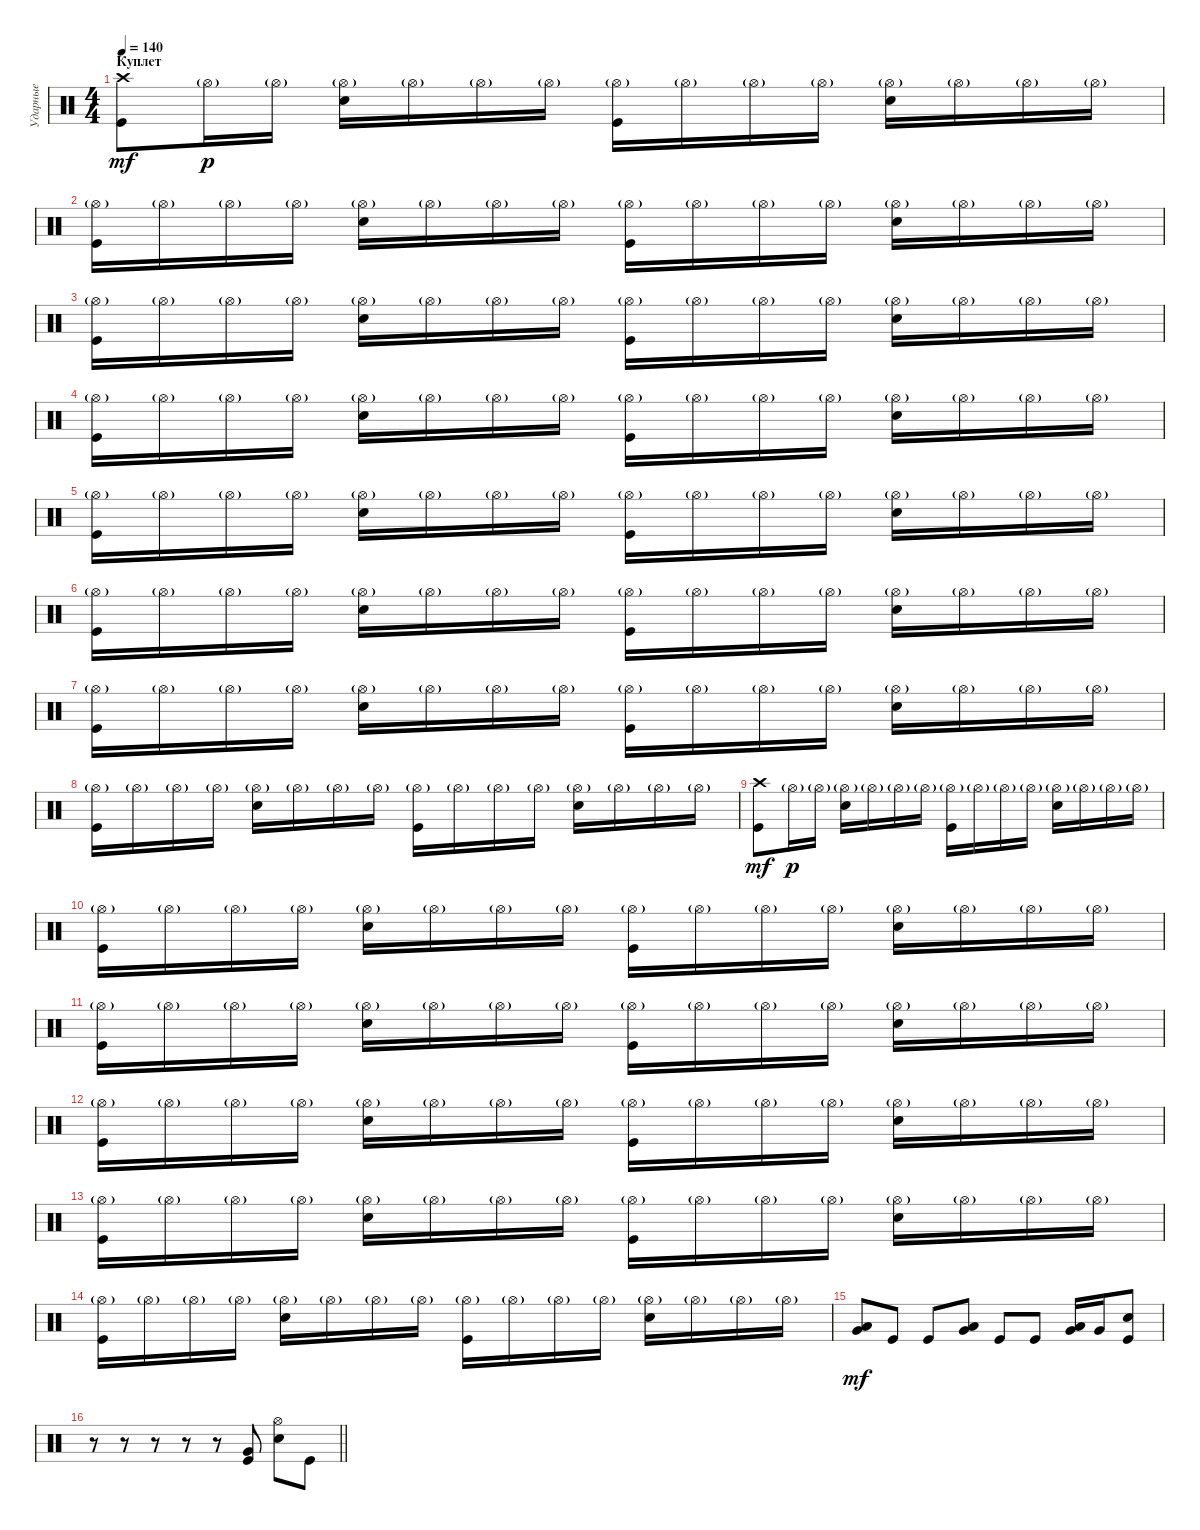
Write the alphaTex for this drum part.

\track ("Ударные" "Ударные") {instrument percussion}
\staff {score}
\articulation defaults
\ts (4 4)
\section ("" "Куплет")
\tempo 140
\clef neutral
\ks c
("Kick (hit)" "Crash high (hit)").8{dy mf} "Hi-Hat (open)"{g}.16{dy p} "Hi-Hat (open)"{g}.16 ("Snare (hit) 2" "Hi-Hat (open)"{g}).16 "Hi-Hat (open)"{g}.16 "Hi-Hat (open)"{g}.16 "Hi-Hat (open)"{g}.16 ("Kick (hit)" "Hi-Hat (open)"{g}).16 "Hi-Hat (open)"{g}.16 "Hi-Hat (open)"{g}.16 "Hi-Hat (open)"{g}.16 ("Snare (hit) 2" "Hi-Hat (open)"{g}).16 "Hi-Hat (open)"{g}.16 "Hi-Hat (open)"{g}.16 "Hi-Hat (open)"{g}.16 |
("Kick (hit)" "Hi-Hat (open)"{g}).16 "Hi-Hat (open)"{g}.16 "Hi-Hat (open)"{g}.16 "Hi-Hat (open)"{g}.16 ("Snare (hit) 2" "Hi-Hat (open)"{g}).16 "Hi-Hat (open)"{g}.16 "Hi-Hat (open)"{g}.16 "Hi-Hat (open)"{g}.16 ("Kick (hit)" "Hi-Hat (open)"{g}).16 "Hi-Hat (open)"{g}.16 "Hi-Hat (open)"{g}.16 "Hi-Hat (open)"{g}.16 ("Snare (hit) 2" "Hi-Hat (open)"{g}).16 "Hi-Hat (open)"{g}.16 "Hi-Hat (open)"{g}.16 "Hi-Hat (open)"{g}.16 |
("Kick (hit)" "Hi-Hat (open)"{g}).16 "Hi-Hat (open)"{g}.16 "Hi-Hat (open)"{g}.16 "Hi-Hat (open)"{g}.16 ("Snare (hit) 2" "Hi-Hat (open)"{g}).16 "Hi-Hat (open)"{g}.16 "Hi-Hat (open)"{g}.16 "Hi-Hat (open)"{g}.16 ("Kick (hit)" "Hi-Hat (open)"{g}).16 "Hi-Hat (open)"{g}.16 "Hi-Hat (open)"{g}.16 "Hi-Hat (open)"{g}.16 ("Snare (hit) 2" "Hi-Hat (open)"{g}).16 "Hi-Hat (open)"{g}.16 "Hi-Hat (open)"{g}.16 "Hi-Hat (open)"{g}.16 |
("Kick (hit)" "Hi-Hat (open)"{g}).16 "Hi-Hat (open)"{g}.16 "Hi-Hat (open)"{g}.16 "Hi-Hat (open)"{g}.16 ("Snare (hit) 2" "Hi-Hat (open)"{g}).16 "Hi-Hat (open)"{g}.16 "Hi-Hat (open)"{g}.16 "Hi-Hat (open)"{g}.16 ("Kick (hit)" "Hi-Hat (open)"{g}).16 "Hi-Hat (open)"{g}.16 "Hi-Hat (open)"{g}.16 "Hi-Hat (open)"{g}.16 ("Snare (hit) 2" "Hi-Hat (open)"{g}).16 "Hi-Hat (open)"{g}.16 "Hi-Hat (open)"{g}.16 "Hi-Hat (open)"{g}.16 |
("Kick (hit)" "Hi-Hat (open)"{g}).16 "Hi-Hat (open)"{g}.16 "Hi-Hat (open)"{g}.16 "Hi-Hat (open)"{g}.16 ("Snare (hit) 2" "Hi-Hat (open)"{g}).16 "Hi-Hat (open)"{g}.16 "Hi-Hat (open)"{g}.16 "Hi-Hat (open)"{g}.16 ("Kick (hit)" "Hi-Hat (open)"{g}).16 "Hi-Hat (open)"{g}.16 "Hi-Hat (open)"{g}.16 "Hi-Hat (open)"{g}.16 ("Snare (hit) 2" "Hi-Hat (open)"{g}).16 "Hi-Hat (open)"{g}.16 "Hi-Hat (open)"{g}.16 "Hi-Hat (open)"{g}.16 |
("Kick (hit)" "Hi-Hat (open)"{g}).16 "Hi-Hat (open)"{g}.16 "Hi-Hat (open)"{g}.16 "Hi-Hat (open)"{g}.16 ("Snare (hit) 2" "Hi-Hat (open)"{g}).16 "Hi-Hat (open)"{g}.16 "Hi-Hat (open)"{g}.16 "Hi-Hat (open)"{g}.16 ("Kick (hit)" "Hi-Hat (open)"{g}).16 "Hi-Hat (open)"{g}.16 "Hi-Hat (open)"{g}.16 "Hi-Hat (open)"{g}.16 ("Snare (hit) 2" "Hi-Hat (open)"{g}).16 "Hi-Hat (open)"{g}.16 "Hi-Hat (open)"{g}.16 "Hi-Hat (open)"{g}.16 |
("Kick (hit)" "Hi-Hat (open)"{g}).16 "Hi-Hat (open)"{g}.16 "Hi-Hat (open)"{g}.16 "Hi-Hat (open)"{g}.16 ("Snare (hit) 2" "Hi-Hat (open)"{g}).16 "Hi-Hat (open)"{g}.16 "Hi-Hat (open)"{g}.16 "Hi-Hat (open)"{g}.16 ("Kick (hit)" "Hi-Hat (open)"{g}).16 "Hi-Hat (open)"{g}.16 "Hi-Hat (open)"{g}.16 "Hi-Hat (open)"{g}.16 ("Snare (hit) 2" "Hi-Hat (open)"{g}).16 "Hi-Hat (open)"{g}.16 "Hi-Hat (open)"{g}.16 "Hi-Hat (open)"{g}.16 |
("Kick (hit)" "Hi-Hat (open)"{g}).16 "Hi-Hat (open)"{g}.16 "Hi-Hat (open)"{g}.16 "Hi-Hat (open)"{g}.16 ("Snare (hit) 2" "Hi-Hat (open)"{g}).16 "Hi-Hat (open)"{g}.16 "Hi-Hat (open)"{g}.16 "Hi-Hat (open)"{g}.16 ("Kick (hit)" "Hi-Hat (open)"{g}).16 "Hi-Hat (open)"{g}.16 "Hi-Hat (open)"{g}.16 "Hi-Hat (open)"{g}.16 ("Snare (hit) 2" "Hi-Hat (open)"{g}).16 "Hi-Hat (open)"{g}.16 "Hi-Hat (open)"{g}.16 "Hi-Hat (open)"{g}.16 |
("Kick (hit)" "Crash high (hit)").8{dy mf} "Hi-Hat (open)"{g}.16{dy p} "Hi-Hat (open)"{g}.16 ("Snare (hit) 2" "Hi-Hat (open)"{g}).16 "Hi-Hat (open)"{g}.16 "Hi-Hat (open)"{g}.16 "Hi-Hat (open)"{g}.16 ("Kick (hit)" "Hi-Hat (open)"{g}).16 "Hi-Hat (open)"{g}.16 "Hi-Hat (open)"{g}.16 "Hi-Hat (open)"{g}.16 ("Snare (hit) 2" "Hi-Hat (open)"{g}).16 "Hi-Hat (open)"{g}.16 "Hi-Hat (open)"{g}.16 "Hi-Hat (open)"{g}.16 |
("Kick (hit)" "Hi-Hat (open)"{g}).16 "Hi-Hat (open)"{g}.16 "Hi-Hat (open)"{g}.16 "Hi-Hat (open)"{g}.16 ("Snare (hit) 2" "Hi-Hat (open)"{g}).16 "Hi-Hat (open)"{g}.16 "Hi-Hat (open)"{g}.16 "Hi-Hat (open)"{g}.16 ("Kick (hit)" "Hi-Hat (open)"{g}).16 "Hi-Hat (open)"{g}.16 "Hi-Hat (open)"{g}.16 "Hi-Hat (open)"{g}.16 ("Snare (hit) 2" "Hi-Hat (open)"{g}).16 "Hi-Hat (open)"{g}.16 "Hi-Hat (open)"{g}.16 "Hi-Hat (open)"{g}.16 |
("Kick (hit)" "Hi-Hat (open)"{g}).16 "Hi-Hat (open)"{g}.16 "Hi-Hat (open)"{g}.16 "Hi-Hat (open)"{g}.16 ("Snare (hit) 2" "Hi-Hat (open)"{g}).16 "Hi-Hat (open)"{g}.16 "Hi-Hat (open)"{g}.16 "Hi-Hat (open)"{g}.16 ("Kick (hit)" "Hi-Hat (open)"{g}).16 "Hi-Hat (open)"{g}.16 "Hi-Hat (open)"{g}.16 "Hi-Hat (open)"{g}.16 ("Snare (hit) 2" "Hi-Hat (open)"{g}).16 "Hi-Hat (open)"{g}.16 "Hi-Hat (open)"{g}.16 "Hi-Hat (open)"{g}.16 |
("Kick (hit)" "Hi-Hat (open)"{g}).16 "Hi-Hat (open)"{g}.16 "Hi-Hat (open)"{g}.16 "Hi-Hat (open)"{g}.16 ("Snare (hit) 2" "Hi-Hat (open)"{g}).16 "Hi-Hat (open)"{g}.16 "Hi-Hat (open)"{g}.16 "Hi-Hat (open)"{g}.16 ("Kick (hit)" "Hi-Hat (open)"{g}).16 "Hi-Hat (open)"{g}.16 "Hi-Hat (open)"{g}.16 "Hi-Hat (open)"{g}.16 ("Snare (hit) 2" "Hi-Hat (open)"{g}).16 "Hi-Hat (open)"{g}.16 "Hi-Hat (open)"{g}.16 "Hi-Hat (open)"{g}.16 |
("Kick (hit)" "Hi-Hat (open)"{g}).16 "Hi-Hat (open)"{g}.16 "Hi-Hat (open)"{g}.16 "Hi-Hat (open)"{g}.16 ("Snare (hit) 2" "Hi-Hat (open)"{g}).16 "Hi-Hat (open)"{g}.16 "Hi-Hat (open)"{g}.16 "Hi-Hat (open)"{g}.16 ("Kick (hit)" "Hi-Hat (open)"{g}).16 "Hi-Hat (open)"{g}.16 "Hi-Hat (open)"{g}.16 "Hi-Hat (open)"{g}.16 ("Snare (hit) 2" "Hi-Hat (open)"{g}).16 "Hi-Hat (open)"{g}.16 "Hi-Hat (open)"{g}.16 "Hi-Hat (open)"{g}.16 |
("Kick (hit)" "Hi-Hat (open)"{g}).16 "Hi-Hat (open)"{g}.16 "Hi-Hat (open)"{g}.16 "Hi-Hat (open)"{g}.16 ("Snare (hit) 2" "Hi-Hat (open)"{g}).16 "Hi-Hat (open)"{g}.16 "Hi-Hat (open)"{g}.16 "Hi-Hat (open)"{g}.16 ("Kick (hit)" "Hi-Hat (open)"{g}).16 "Hi-Hat (open)"{g}.16 "Hi-Hat (open)"{g}.16 "Hi-Hat (open)"{g}.16 ("Snare (hit) 2" "Hi-Hat (open)"{g}).16 "Hi-Hat (open)"{g}.16 "Hi-Hat (open)"{g}.16 "Hi-Hat (open)"{g}.16 |
("Very Low Tom (hit)" "Low Tom (hit)").8{dy mf} "Kick (hit)".8 "Kick (hit)".8 ("Very Low Tom (hit)" "Low Tom (hit)").8 "Kick (hit)".8 "Kick (hit)".8 ("Very Low Tom (hit)" "Low Tom (hit)").16 "Very Low Tom (hit)".16 ("Kick (hit)" "Snare (hit) 2").8 |
\barLineRight lightlight
r.8 r.8 r.8 r.8 r.8 ("Kick (hit)" "Very Low Tom (hit)").8 ("Snare (hit) 2" "Hi-Hat (open)").8 "Kick (hit)".8
